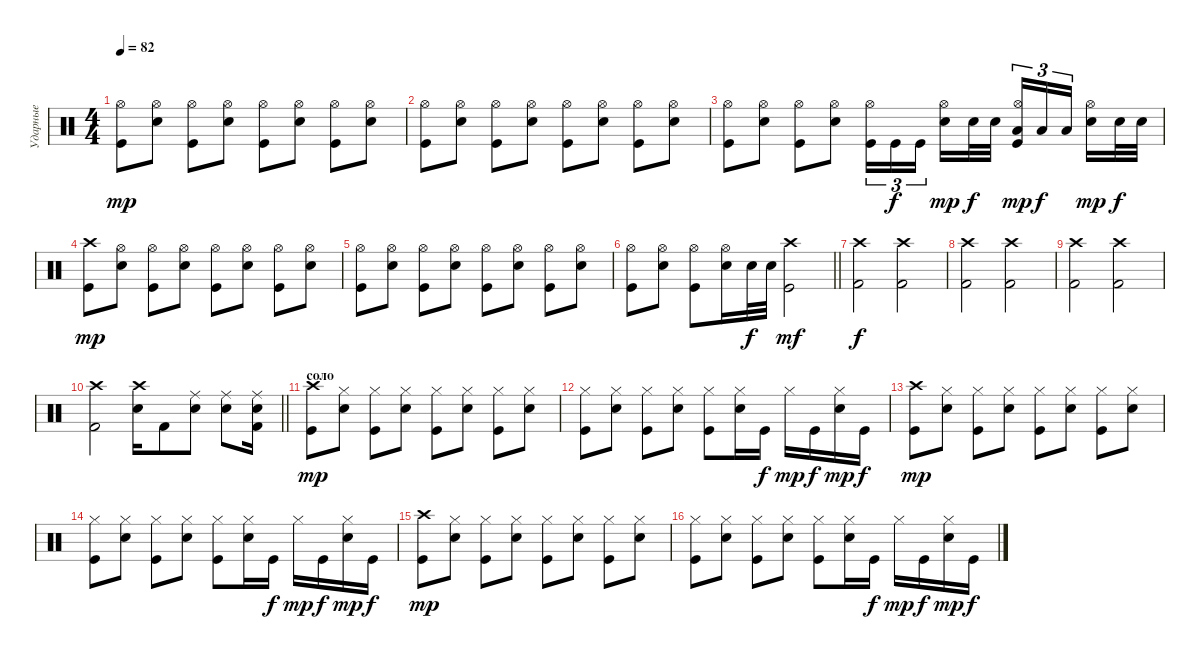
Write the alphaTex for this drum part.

\track ("Ударные" "Ударные") {instrument percussion}
\staff {score}
\articulation defaults
\ts (4 4)
\tempo 82
\clef neutral
\ks c
("Kick (hit)" "Hi-Hat (open)").8{dy mp} ("Snare (hit) 2" "Hi-Hat (open)").8 ("Kick (hit)" "Hi-Hat (open)").8 ("Snare (hit) 2" "Hi-Hat (open)").8 ("Kick (hit)" "Hi-Hat (open)").8 ("Snare (hit) 2" "Hi-Hat (open)").8 ("Kick (hit)" "Hi-Hat (open)").8 ("Snare (hit) 2" "Hi-Hat (open)").8 |
("Kick (hit)" "Hi-Hat (open)").8 ("Snare (hit) 2" "Hi-Hat (open)").8 ("Kick (hit)" "Hi-Hat (open)").8 ("Snare (hit) 2" "Hi-Hat (open)").8 ("Kick (hit)" "Hi-Hat (open)").8 ("Snare (hit) 2" "Hi-Hat (open)").8 ("Kick (hit)" "Hi-Hat (open)").8 ("Snare (hit) 2" "Hi-Hat (open)").8 |
("Kick (hit)" "Hi-Hat (open)").8 ("Snare (hit) 2" "Hi-Hat (open)").8 ("Kick (hit)" "Hi-Hat (open)").8 ("Snare (hit) 2" "Hi-Hat (open)").8 ("Kick (hit)" "Hi-Hat (open)").16{tu (3 2)} "Kick (hit)".16{tu (3 2) dy f} "Kick (hit)".16{tu (3 2) beam splitsecondary} ("Snare (hit) 2" "Hi-Hat (open)").16{dy mp} "Snare (hit) 2".32{dy f} "Snare (hit) 2".32 ("Kick (hit)" "Hi-Hat (open)" "Low Floor Tom (hit)").16{tu (3 2) dy mp} "Low Floor Tom (hit)".16{tu (3 2) dy f} "Low Floor Tom (hit)".16{tu (3 2) beam splitsecondary} ("Snare (hit) 2" "Hi-Hat (open)").16{dy mp} "Snare (hit) 2".32{dy f} "Snare (hit) 2".32 |
("Kick (hit)" "Crash high (hit)").8{dy mp} ("Snare (hit) 2" "Hi-Hat (open)").8 ("Kick (hit)" "Hi-Hat (open)").8 ("Snare (hit) 2" "Hi-Hat (open)").8 ("Kick (hit)" "Hi-Hat (open)").8 ("Snare (hit) 2" "Hi-Hat (open)").8 ("Kick (hit)" "Hi-Hat (open)").8 ("Snare (hit) 2" "Hi-Hat (open)").8 |
("Kick (hit)" "Hi-Hat (open)").8 ("Snare (hit) 2" "Hi-Hat (open)").8 ("Kick (hit)" "Hi-Hat (open)").8 ("Snare (hit) 2" "Hi-Hat (open)").8 ("Kick (hit)" "Hi-Hat (open)").8 ("Snare (hit) 2" "Hi-Hat (open)").8 ("Kick (hit)" "Hi-Hat (open)").8 ("Snare (hit) 2" "Hi-Hat (open)").8 |
\barLineRight lightlight
("Kick (hit)" "Hi-Hat (open)").8 ("Snare (hit) 2" "Hi-Hat (open)").8 ("Kick (hit)" "Hi-Hat (open)").8 ("Snare (hit) 2" "Hi-Hat (open)").16 "Snare (hit) 2".32{dy f} "Snare (hit) 2".32 ("Kick (hit)" "Crash high (hit)").2{dy mf} |
\section ("" "")
("Kick (hit) 2" "Crash high (hit)").2{dy f} ("Kick (hit) 2" "Crash high (hit)").2 |
("Kick (hit) 2" "Crash high (hit)").2 ("Kick (hit) 2" "Crash high (hit)").2 |
("Kick (hit) 2" "Crash high (hit)").2 ("Kick (hit) 2" "Crash high (hit)").2 |
\barLineRight lightlight
("Kick (hit) 2" "Crash high (hit)").2 ("Snare (hit) 2" "Crash high (hit)").16 "Kick (hit) 2".8 ("Snare (hit) 2" "Ride (middle)").8 ("Snare (hit) 2" "Ride (middle)").8 ("Kick (hit) 2" "Snare (hit) 2" "Ride (middle)").16 |
\section ("" "соло")
("Kick (hit)" "Crash high (hit)").8{dy mp} ("Snare (hit) 2" "Hi-Hat (closed)").8 ("Kick (hit)" "Hi-Hat (closed)").8 ("Snare (hit) 2" "Hi-Hat (closed)").8 ("Kick (hit)" "Hi-Hat (closed)").8 ("Snare (hit) 2" "Hi-Hat (closed)").8 ("Kick (hit)" "Hi-Hat (closed)").8 ("Snare (hit) 2" "Hi-Hat (closed)").8 |
("Kick (hit)" "Hi-Hat (closed)").8 ("Snare (hit) 2" "Hi-Hat (closed)").8 ("Kick (hit)" "Hi-Hat (closed)").8 ("Snare (hit) 2" "Hi-Hat (closed)").8 ("Kick (hit)" "Hi-Hat (closed)").8 ("Snare (hit) 2" "Hi-Hat (closed)").16 "Kick (hit)".16{dy f} "Hi-Hat (closed)".16{dy mp} "Kick (hit)".16{dy f} ("Snare (hit) 2" "Hi-Hat (closed)").16{dy mp} "Kick (hit)".16{dy f} |
("Kick (hit)" "Crash high (hit)").8{dy mp} ("Snare (hit) 2" "Hi-Hat (closed)").8 ("Kick (hit)" "Hi-Hat (closed)").8 ("Snare (hit) 2" "Hi-Hat (closed)").8 ("Kick (hit)" "Hi-Hat (closed)").8 ("Snare (hit) 2" "Hi-Hat (closed)").8 ("Kick (hit)" "Hi-Hat (closed)").8 ("Snare (hit) 2" "Hi-Hat (closed)").8 |
("Kick (hit)" "Hi-Hat (closed)").8 ("Snare (hit) 2" "Hi-Hat (closed)").8 ("Kick (hit)" "Hi-Hat (closed)").8 ("Snare (hit) 2" "Hi-Hat (closed)").8 ("Kick (hit)" "Hi-Hat (closed)").8 ("Snare (hit) 2" "Hi-Hat (closed)").16 "Kick (hit)".16{dy f} "Hi-Hat (closed)".16{dy mp} "Kick (hit)".16{dy f} ("Snare (hit) 2" "Hi-Hat (closed)").16{dy mp} "Kick (hit)".16{dy f} |
("Kick (hit)" "Crash high (hit)").8{dy mp} ("Snare (hit) 2" "Hi-Hat (closed)").8 ("Kick (hit)" "Hi-Hat (closed)").8 ("Snare (hit) 2" "Hi-Hat (closed)").8 ("Kick (hit)" "Hi-Hat (closed)").8 ("Snare (hit) 2" "Hi-Hat (closed)").8 ("Kick (hit)" "Hi-Hat (closed)").8 ("Snare (hit) 2" "Hi-Hat (closed)").8 |
("Kick (hit)" "Hi-Hat (closed)").8 ("Snare (hit) 2" "Hi-Hat (closed)").8 ("Kick (hit)" "Hi-Hat (closed)").8 ("Snare (hit) 2" "Hi-Hat (closed)").8 ("Kick (hit)" "Hi-Hat (closed)").8 ("Snare (hit) 2" "Hi-Hat (closed)").16 "Kick (hit)".16{dy f} "Hi-Hat (closed)".16{dy mp} "Kick (hit)".16{dy f} ("Snare (hit) 2" "Hi-Hat (closed)").16{dy mp} "Kick (hit)".16{dy f}
